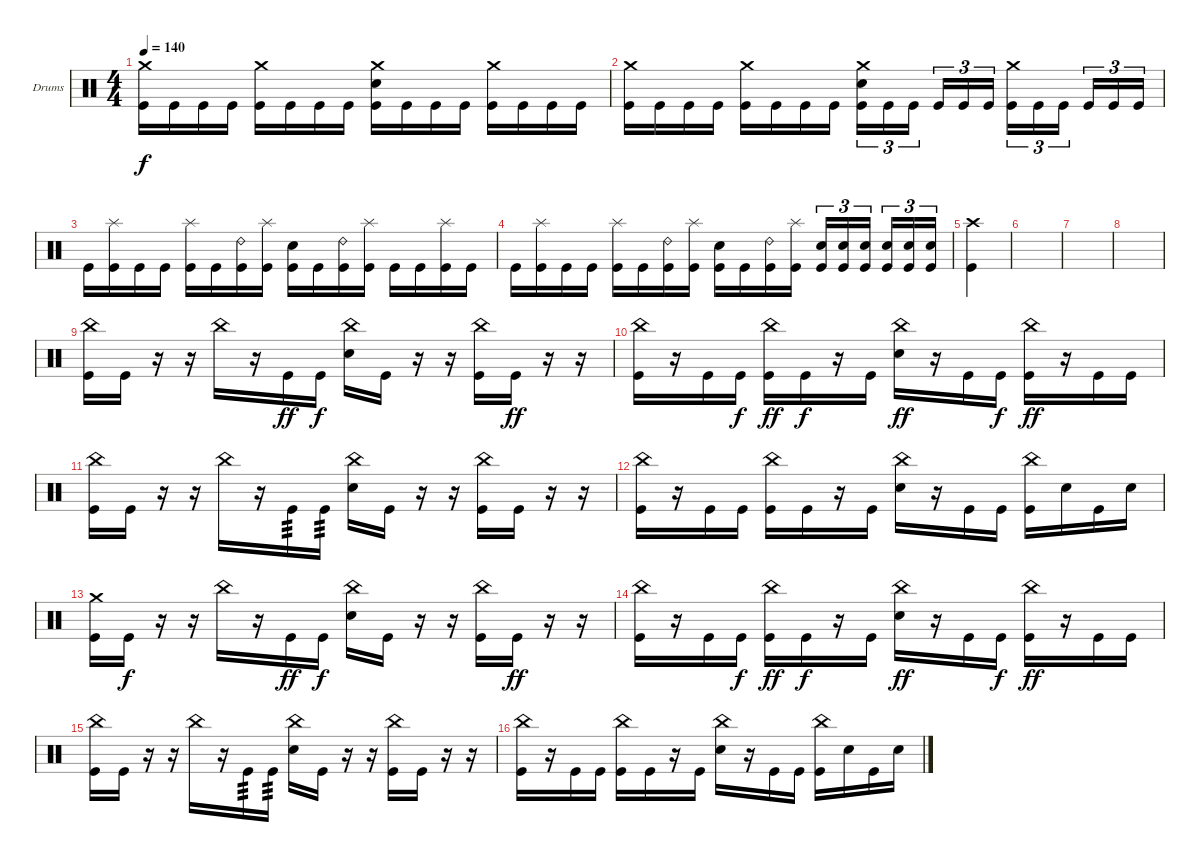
\defaultSystemsLayout 4
\bracketExtendMode groupsimilarinstruments
\firstSystemTrackNameOrientation horizontal
\otherSystemsTrackNameOrientation horizontal
\track ("Drumkit" "Drums") {instrument percussion}
\staff {score}
\articulation defaults
\ts (4 4)
\tempo 140
\clef neutral
\ks c
("Crash medium (hit)" "Kick (hit)").16{dy f} "Kick (hit)".16 "Kick (hit)".16 "Kick (hit)".16 ("Crash medium (hit)" "Kick (hit)").16 "Kick (hit)".16 "Kick (hit)".16 "Kick (hit)".16 ("Crash medium (hit)" "Snare (hit) 2" "Kick (hit)").16 "Kick (hit)".16 "Kick (hit)".16 "Kick (hit)".16 ("Crash medium (hit)" "Kick (hit)").16 "Kick (hit)".16 "Kick (hit)".16 "Kick (hit)".16 |
("Crash medium (hit)" "Kick (hit)").16 "Kick (hit)".16 "Kick (hit)".16 "Kick (hit)".16 ("Crash medium (hit)" "Kick (hit)").16 "Kick (hit)".16 "Kick (hit)".16 "Kick (hit)".16 ("Crash medium (hit)" "Snare (hit) 2" "Kick (hit)").16{tu (3 2)} "Kick (hit)".16{tu (3 2)} "Kick (hit)".16{tu (3 2)} "Kick (hit)".16{tu (3 2)} "Kick (hit)".16{tu (3 2)} "Kick (hit)".16{tu (3 2)} ("Crash medium (hit)" "Kick (hit)").16{tu (3 2)} "Kick (hit)".16{tu (3 2)} "Kick (hit)".16{tu (3 2)} "Kick (hit)".16{tu (3 2)} "Kick (hit)".16{tu (3 2)} "Kick (hit)".16{tu (3 2)} |
"Kick (hit)".16 ("Splash (hit)" "Kick (hit)").16 "Kick (hit)".16 "Kick (hit)".16 ("Splash (hit)" "Kick (hit)").16 "Kick (hit)".16 ("Ride (bell) 2" "Kick (hit)").16 ("Splash (hit)" "Kick (hit)").16 ("Snare (hit) 2" "Kick (hit)").16 "Kick (hit)".16 ("Ride (bell) 2" "Kick (hit)").16 ("Splash (hit)" "Kick (hit)").16 "Kick (hit)".16 "Kick (hit)".16 ("Splash (hit)" "Kick (hit)").16 "Kick (hit)".16 |
"Kick (hit)".16 ("Splash (hit)" "Kick (hit)").16 "Kick (hit)".16 "Kick (hit)".16 ("Splash (hit)" "Kick (hit)").16 "Kick (hit)".16 ("Ride (bell) 2" "Kick (hit)").16 ("Splash (hit)" "Kick (hit)").16 ("Snare (hit) 2" "Kick (hit)").16 "Kick (hit)".16 ("Ride (bell) 2" "Kick (hit)").16 ("Splash (hit)" "Kick (hit)").16 ("Snare (hit) 2" "Kick (hit)").16{tu (3 2)} ("Snare (hit) 2" "Kick (hit)").16{tu (3 2)} ("Snare (hit) 2" "Kick (hit)").16{tu (3 2)} ("Snare (hit) 2" "Kick (hit)").16{tu (3 2)} ("Snare (hit) 2" "Kick (hit)").16{tu (3 2)} ("Snare (hit) 2" "Kick (hit)").16{tu (3 2)} |
("Crash high (hit)" "Kick (hit)").4 |
|
|
|
("China (hit)" "Kick (hit)").16 "Kick (hit)".16 r.16 r.16 "China (hit)".16 r.16 "Kick (hit)".16{dy ff} "Kick (hit)".16{dy f} ("China (hit)" "Snare (hit) 2").16 "Kick (hit)".16 r.16 r.16 ("China (hit)" "Kick (hit)").16 "Kick (hit)".16{dy ff} r.16 r.16 |
("China (hit)" "Kick (hit)").16 r.16 "Kick (hit)".16 "Kick (hit)".16{dy f} ("China (hit)" "Kick (hit)").16{dy ff} "Kick (hit)".16{dy f} r.16 "Kick (hit)".16 ("China (hit)" "Snare (hit) 2").16{dy ff} r.16 "Kick (hit)".16 "Kick (hit)".16{dy f} ("China (hit)" "Kick (hit)").16{dy ff} r.16 "Kick (hit)".16 "Kick (hit)".16 |
("China (hit)" "Kick (hit)").16 "Kick (hit)".16 r.16 r.16 "China (hit)".16 r.16 "Kick (hit)".16{tp 3} "Kick (hit)".16{tp 3} ("China (hit)" "Snare (hit) 2").16 "Kick (hit)".16 r.16 r.16 ("China (hit)" "Kick (hit)").16 "Kick (hit)".16 r.16 r.16 |
("China (hit)" "Kick (hit)").16 r.16 "Kick (hit)".16 "Kick (hit)".16 ("China (hit)" "Kick (hit)").16 "Kick (hit)".16 r.16 "Kick (hit)".16 ("China (hit)" "Snare (hit) 2").16 r.16 "Kick (hit)".16 "Kick (hit)".16 ("China (hit)" "Kick (hit)").16 "Snare (hit) 2".16 "Kick (hit)".16 "Snare (hit) 2".16 |
("Crash medium (hit)" "Kick (hit)").16 "Kick (hit)".16{dy f} r.16 r.16 "China (hit)".16 r.16 "Kick (hit)".16{dy ff} "Kick (hit)".16{dy f} ("China (hit)" "Snare (hit) 2").16 "Kick (hit)".16 r.16 r.16 ("China (hit)" "Kick (hit)").16 "Kick (hit)".16{dy ff} r.16 r.16 |
("China (hit)" "Kick (hit)").16 r.16 "Kick (hit)".16 "Kick (hit)".16{dy f} ("China (hit)" "Kick (hit)").16{dy ff} "Kick (hit)".16{dy f} r.16 "Kick (hit)".16 ("China (hit)" "Snare (hit) 2").16{dy ff} r.16 "Kick (hit)".16 "Kick (hit)".16{dy f} ("China (hit)" "Kick (hit)").16{dy ff} r.16 "Kick (hit)".16 "Kick (hit)".16 |
("China (hit)" "Kick (hit)").16 "Kick (hit)".16 r.16 r.16 "China (hit)".16 r.16 "Kick (hit)".16{tp 3} "Kick (hit)".16{tp 3} ("China (hit)" "Snare (hit) 2").16 "Kick (hit)".16 r.16 r.16 ("China (hit)" "Kick (hit)").16 "Kick (hit)".16 r.16 r.16 |
("China (hit)" "Kick (hit)").16 r.16 "Kick (hit)".16 "Kick (hit)".16 ("China (hit)" "Kick (hit)").16 "Kick (hit)".16 r.16 "Kick (hit)".16 ("China (hit)" "Snare (hit) 2").16 r.16 "Kick (hit)".16 "Kick (hit)".16 ("China (hit)" "Kick (hit)").16 "Snare (hit) 2".16 "Kick (hit)".16 "Snare (hit) 2".16
